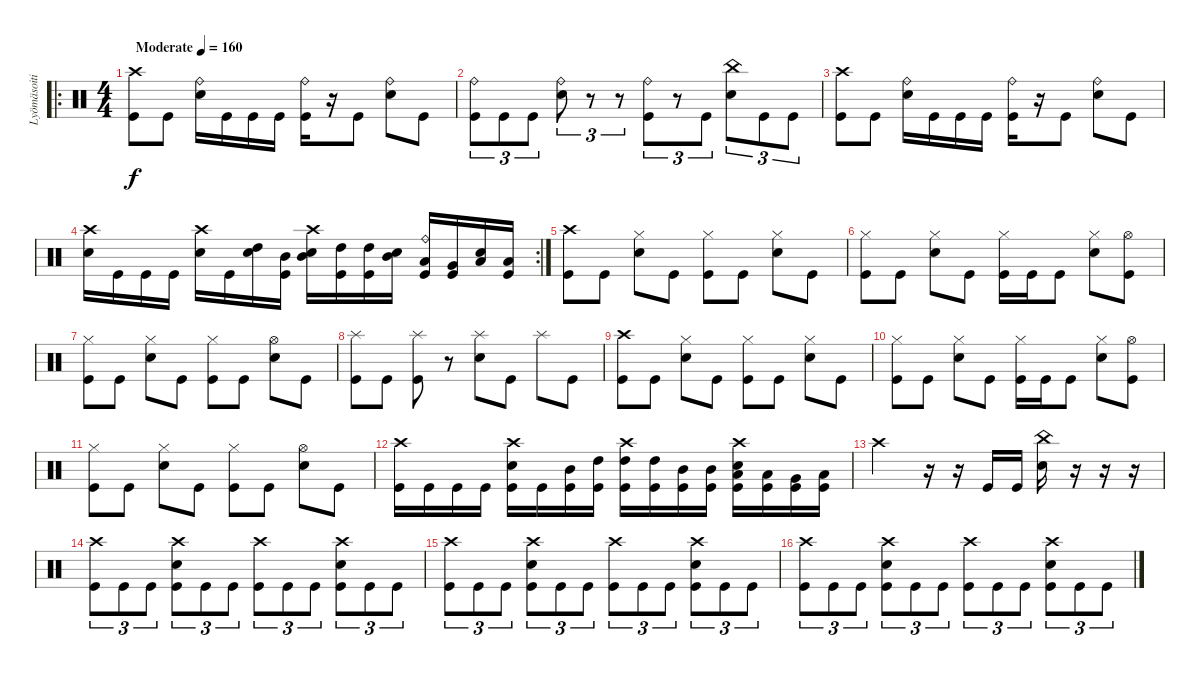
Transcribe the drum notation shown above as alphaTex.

\track ("Lyömäsoitin" "Lyömäsoiti") {instrument percussion}
\staff {score}
\articulation defaults
\ro
\ts (4 4)
\tempo (160 "Moderate")
\clef neutral
\ks c
("Crash high (hit)" "Kick (hit)").8{dy f} "Kick (hit)".8 ("Ride (bell)" "Snare (hit) 2").16 "Kick (hit)".16 "Kick (hit)".16 "Kick (hit)".16 ("Ride (bell)" "Kick (hit)").16 r.16 "Kick (hit)".8 ("Ride (bell)" "Snare (hit) 2").8 "Kick (hit)".8 |
("Ride (bell)" "Kick (hit)").8{tu (3 2)} "Kick (hit)".8{tu (3 2)} "Kick (hit)".8{tu (3 2)} ("Ride (bell)" "Snare (hit) 2").8{tu (3 2)} r.8{tu (3 2)} r.8{tu (3 2)} ("Ride (bell)" "Kick (hit)").8{tu (3 2)} r.8{tu (3 2)} "Kick (hit)".8{tu (3 2)} ("China (hit)" "Snare (hit) 2").8{tu (3 2)} "Kick (hit)".8{tu (3 2)} "Kick (hit)".8{tu (3 2)} |
("Crash high (hit)" "Kick (hit)").8 "Kick (hit)".8 ("Ride (bell)" "Snare (hit) 2").16 "Kick (hit)".16 "Kick (hit)".16 "Kick (hit)".16 ("Ride (bell)" "Kick (hit)").16 r.16 "Kick (hit)".8 ("Ride (bell)" "Snare (hit) 2").8 "Kick (hit)".8 |
\rc 2
("Crash high (hit)" "Snare (hit) 2").16 "Kick (hit)".16 "Kick (hit)".16 "Kick (hit)".16 ("Crash high (hit)" "Snare (hit) 2").16 "Kick (hit)".16 ("Snare (hit) 2" "High Tom (hit)").16 ("Kick (hit)" "Mid Tom (hit)").16 ("Crash high (hit)" "Snare (hit) 2" "Mid Tom (hit)").16 ("Kick (hit)" "High Tom (hit)").16 ("Kick (hit)" "High Tom (hit)").16 ("Snare (hit) 2" "Mid Tom (hit)").16 ("Ride (bell)" "Kick (hit)" "Low Tom (hit)").16 ("Kick (hit)" "Very Low Tom (hit)").16 ("Snare (hit) 2" "Low Floor Tom (hit)").16 ("Kick (hit)" "Low Floor Tom (hit)").16 |
("Crash high (hit)" "Kick (hit)").8 "Kick (hit)".8 ("Hi-Hat (closed)" "Snare (hit) 2").8 "Kick (hit)".8 ("Hi-Hat (closed)" "Kick (hit)").8 "Kick (hit)".8 ("Hi-Hat (closed)" "Snare (hit) 2").8 "Kick (hit)".8 |
("Hi-Hat (closed)" "Kick (hit)").8 "Kick (hit)".8 ("Hi-Hat (closed)" "Snare (hit) 2").8 "Kick (hit)".8 ("Hi-Hat (closed)" "Kick (hit)").16 "Kick (hit)".16 "Kick (hit)".8 ("Hi-Hat (closed)" "Snare (hit) 2").8 ("Hi-Hat (open)" "Kick (hit)").8 |
("Hi-Hat (closed)" "Kick (hit)").8 "Kick (hit)".8 ("Hi-Hat (closed)" "Snare (hit) 2").8 "Kick (hit)".8 ("Hi-Hat (closed)" "Kick (hit)").8 "Kick (hit)".8 ("Hi-Hat (open)" "Snare (hit) 2").8 "Kick (hit)".8 |
("Splash (hit)" "Kick (hit)").8 "Kick (hit)".8 ("Splash (hit)" "Kick (hit)").8 r.8 ("Splash (hit)" "Snare (hit) 2").8 "Kick (hit)".8 "Splash (hit)".8 "Kick (hit)".8 |
("Crash high (hit)" "Kick (hit)").8 "Kick (hit)".8 ("Hi-Hat (closed)" "Snare (hit) 2").8 "Kick (hit)".8 ("Hi-Hat (closed)" "Kick (hit)").8 "Kick (hit)".8 ("Hi-Hat (closed)" "Snare (hit) 2").8 "Kick (hit)".8 |
("Hi-Hat (closed)" "Kick (hit)").8 "Kick (hit)".8 ("Hi-Hat (closed)" "Snare (hit) 2").8 "Kick (hit)".8 ("Hi-Hat (closed)" "Kick (hit)").16 "Kick (hit)".16 "Kick (hit)".8 ("Hi-Hat (closed)" "Snare (hit) 2").8 ("Hi-Hat (open)" "Kick (hit)").8 |
("Hi-Hat (closed)" "Kick (hit)").8 "Kick (hit)".8 ("Hi-Hat (closed)" "Snare (hit) 2").8 "Kick (hit)".8 ("Hi-Hat (closed)" "Kick (hit)").8 "Kick (hit)".8 ("Hi-Hat (open)" "Snare (hit) 2").8 "Kick (hit)".8 |
("Crash high (hit)" "Kick (hit)").16 "Kick (hit)".16 "Kick (hit)".16 "Kick (hit)".16 ("Crash high (hit)" "Kick (hit)" "Snare (hit) 2").16 "Kick (hit)".16 ("Kick (hit)" "Mid Tom (hit)").16 ("Kick (hit)" "High Tom (hit)").16 ("Crash high (hit)" "Kick (hit)" "High Tom (hit)").16 ("Kick (hit)" "High Tom (hit)").16 ("Kick (hit)" "Mid Tom (hit)").16 ("Kick (hit)" "Mid Tom (hit)").16 ("Crash high (hit)" "Kick (hit)" "Low Tom (hit)" "Snare (hit) 2").16 ("Kick (hit)" "Low Tom (hit)").16 ("Kick (hit)" "Very Low Tom (hit)").16 ("Kick (hit)" "Low Floor Tom (hit)").16 |
"Crash high (hit)".2 r.16 r.16 "Kick (hit)".16 "Kick (hit)".16 ("Snare (hit) 2" "China (hit)").16 r.16 r.16 r.16 |
("Kick (hit)" "Crash high (hit)").8{tu (3 2)} "Kick (hit)".8{tu (3 2)} "Kick (hit)".8{tu (3 2)} ("Kick (hit)" "Snare (hit) 2" "Crash high (hit)").8{tu (3 2)} "Kick (hit)".8{tu (3 2)} "Kick (hit)".8{tu (3 2)} ("Kick (hit)" "Crash high (hit)").8{tu (3 2)} "Kick (hit)".8{tu (3 2)} "Kick (hit)".8{tu (3 2)} ("Kick (hit)" "Snare (hit) 2" "Crash high (hit)").8{tu (3 2)} "Kick (hit)".8{tu (3 2)} "Kick (hit)".8{tu (3 2)} |
("Kick (hit)" "Crash high (hit)").8{tu (3 2)} "Kick (hit)".8{tu (3 2)} "Kick (hit)".8{tu (3 2)} ("Kick (hit)" "Snare (hit) 2" "Crash high (hit)").8{tu (3 2)} "Kick (hit)".8{tu (3 2)} "Kick (hit)".8{tu (3 2)} ("Kick (hit)" "Crash high (hit)").8{tu (3 2)} "Kick (hit)".8{tu (3 2)} "Kick (hit)".8{tu (3 2)} ("Kick (hit)" "Snare (hit) 2" "Crash high (hit)").8{tu (3 2)} "Kick (hit)".8{tu (3 2)} "Kick (hit)".8{tu (3 2)} |
("Kick (hit)" "Crash high (hit)").8{tu (3 2)} "Kick (hit)".8{tu (3 2)} "Kick (hit)".8{tu (3 2)} ("Kick (hit)" "Snare (hit) 2" "Crash high (hit)").8{tu (3 2)} "Kick (hit)".8{tu (3 2)} "Kick (hit)".8{tu (3 2)} ("Kick (hit)" "Crash high (hit)").8{tu (3 2)} "Kick (hit)".8{tu (3 2)} "Kick (hit)".8{tu (3 2)} ("Kick (hit)" "Snare (hit) 2" "Crash high (hit)").8{tu (3 2)} "Kick (hit)".8{tu (3 2)} "Kick (hit)".8{tu (3 2)}
